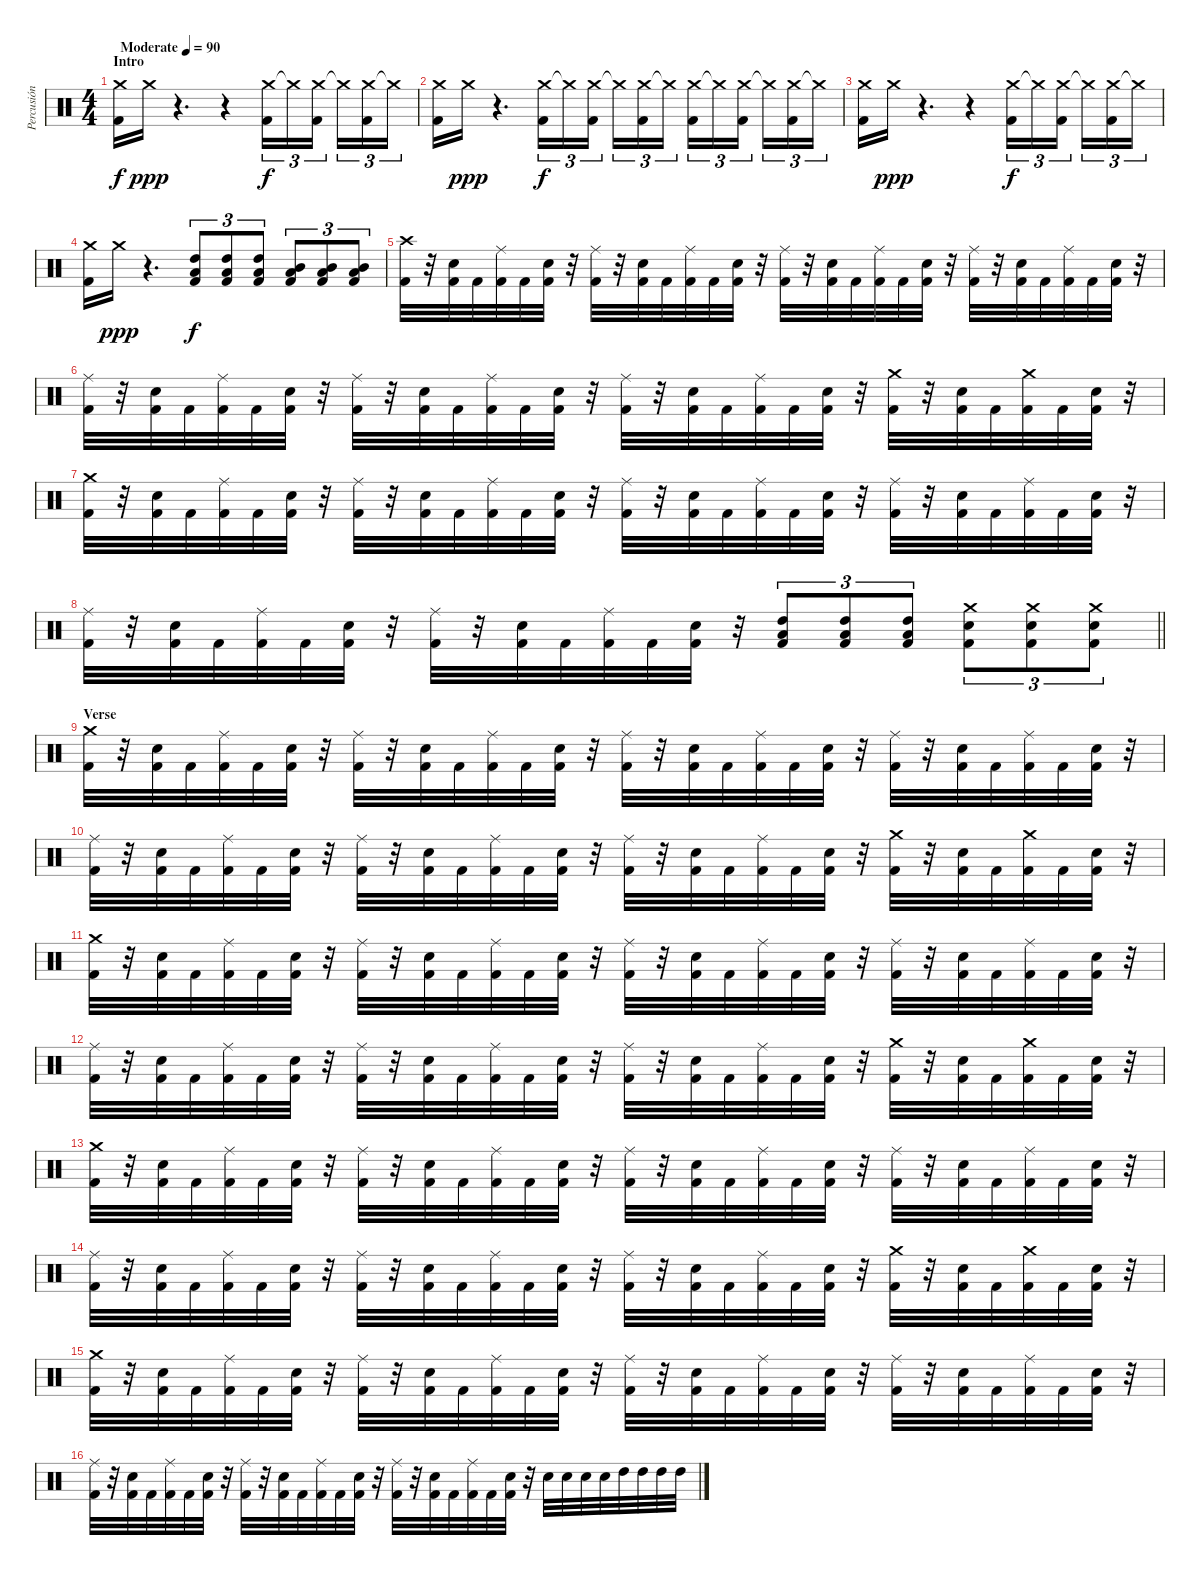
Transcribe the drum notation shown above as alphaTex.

\track ("Percusión" "Percusión") {instrument percussion}
\staff {score}
\articulation defaults
\ts (4 4)
\section ("" "Intro")
\tempo (90 "Moderate")
\clef neutral
\ks c
("Crash medium (hit)" "Kick (hit) 2").16{dy f} "Crash medium (hit)".16{dy ppp} r.4{d} r.4 ("Crash medium (hit)" "Kick (hit) 2").16{tu (3 2) dy f} "Crash medium (hit)"{t}.16{tu (3 2)} ("Crash medium (hit)" "Kick (hit) 2").16{tu (3 2) beam splitsecondary} "Crash medium (hit)"{t}.16{tu (3 2)} ("Crash medium (hit)" "Kick (hit) 2").16{tu (3 2)} "Crash medium (hit)"{t}.16{tu (3 2)} |
("Crash medium (hit)" "Kick (hit) 2").16 "Crash medium (hit)".16{dy ppp} r.4{d} ("Crash medium (hit)" "Kick (hit) 2").16{tu (3 2) dy f} "Crash medium (hit)"{t}.16{tu (3 2)} ("Crash medium (hit)" "Kick (hit) 2").16{tu (3 2) beam splitsecondary} "Crash medium (hit)"{t}.16{tu (3 2)} ("Crash medium (hit)" "Kick (hit) 2").16{tu (3 2)} "Crash medium (hit)"{t}.16{tu (3 2)} ("Crash medium (hit)" "Kick (hit) 2").16{tu (3 2)} "Crash medium (hit)"{t}.16{tu (3 2)} ("Crash medium (hit)" "Kick (hit) 2").16{tu (3 2) beam splitsecondary} "Crash medium (hit)"{t}.16{tu (3 2)} ("Crash medium (hit)" "Kick (hit) 2").16{tu (3 2)} "Crash medium (hit)"{t}.16{tu (3 2)} |
("Crash medium (hit)" "Kick (hit) 2").16 "Crash medium (hit)".16{dy ppp} r.4{d} r.4 ("Crash medium (hit)" "Kick (hit) 2").16{tu (3 2) dy f} "Crash medium (hit)"{t}.16{tu (3 2)} ("Crash medium (hit)" "Kick (hit) 2").16{tu (3 2) beam splitsecondary} "Crash medium (hit)"{t}.16{tu (3 2)} ("Crash medium (hit)" "Kick (hit) 2").16{tu (3 2)} "Crash medium (hit)"{t}.16{tu (3 2)} |
("Crash medium (hit)" "Kick (hit) 2").16 "Crash medium (hit)".16{dy ppp} r.4{d} ("High Tom (hit)" "Low Floor Tom (hit)" "Kick (hit) 2").8{tu (3 2) bd 60 dy f} ("High Tom (hit)" "Low Floor Tom (hit)" "Kick (hit) 2").8{tu (3 2) bd 60} ("High Tom (hit)" "Low Floor Tom (hit)" "Kick (hit) 2").8{tu (3 2) bd 60} ("Mid Tom (hit)" "Low Floor Tom (hit)" "Kick (hit) 2").8{tu (3 2) bd 60} ("Mid Tom (hit)" "Low Floor Tom (hit)" "Kick (hit) 2").8{tu (3 2) bd 60} ("Mid Tom (hit)" "Low Floor Tom (hit)" "Kick (hit) 2").8{tu (3 2) bd 60} |
("Crash high (hit)" "Kick (hit) 2").32 r.32 ("Snare (hit) 2" "Kick (hit) 2").32 "Kick (hit) 2".32 ("Ride (middle)" "Kick (hit) 2").32 "Kick (hit) 2".32 ("Snare (hit) 2" "Kick (hit) 2").32 r.32 ("Ride (middle)" "Kick (hit) 2").32 r.32 ("Snare (hit) 2" "Kick (hit) 2").32 "Kick (hit) 2".32 ("Ride (middle)" "Kick (hit) 2").32 "Kick (hit) 2".32 ("Snare (hit) 2" "Kick (hit) 2").32 r.32 ("Ride (middle)" "Kick (hit) 2").32 r.32 ("Snare (hit) 2" "Kick (hit) 2").32 "Kick (hit) 2".32 ("Ride (middle)" "Kick (hit) 2").32 "Kick (hit) 2".32 ("Snare (hit) 2" "Kick (hit) 2").32 r.32 ("Ride (middle)" "Kick (hit) 2").32 r.32 ("Snare (hit) 2" "Kick (hit) 2").32 "Kick (hit) 2".32 ("Ride (middle)" "Kick (hit) 2").32 "Kick (hit) 2".32 ("Snare (hit) 2" "Kick (hit) 2").32 r.32 |
("Ride (middle)" "Kick (hit) 2").32 r.32 ("Snare (hit) 2" "Kick (hit) 2").32 "Kick (hit) 2".32 ("Ride (middle)" "Kick (hit) 2").32 "Kick (hit) 2".32 ("Snare (hit) 2" "Kick (hit) 2").32 r.32 ("Ride (middle)" "Kick (hit) 2").32 r.32 ("Snare (hit) 2" "Kick (hit) 2").32 "Kick (hit) 2".32 ("Ride (middle)" "Kick (hit) 2").32 "Kick (hit) 2".32 ("Snare (hit) 2" "Kick (hit) 2").32 r.32 ("Ride (middle)" "Kick (hit) 2").32 r.32 ("Snare (hit) 2" "Kick (hit) 2").32 "Kick (hit) 2".32 ("Ride (middle)" "Kick (hit) 2").32 "Kick (hit) 2".32 ("Snare (hit) 2" "Kick (hit) 2").32 r.32 ("Crash medium (hit)" "Kick (hit) 2").32 r.32 ("Snare (hit) 2" "Kick (hit) 2").32 "Kick (hit) 2".32 ("Crash medium (hit)" "Kick (hit) 2").32 "Kick (hit) 2".32 ("Snare (hit) 2" "Kick (hit) 2").32 r.32 |
("Crash medium (hit)" "Kick (hit) 2").32 r.32 ("Snare (hit) 2" "Kick (hit) 2").32 "Kick (hit) 2".32 ("Ride (middle)" "Kick (hit) 2").32 "Kick (hit) 2".32 ("Snare (hit) 2" "Kick (hit) 2").32 r.32 ("Ride (middle)" "Kick (hit) 2").32 r.32 ("Snare (hit) 2" "Kick (hit) 2").32 "Kick (hit) 2".32 ("Ride (middle)" "Kick (hit) 2").32 "Kick (hit) 2".32 ("Snare (hit) 2" "Kick (hit) 2").32 r.32 ("Ride (middle)" "Kick (hit) 2").32 r.32 ("Snare (hit) 2" "Kick (hit) 2").32 "Kick (hit) 2".32 ("Ride (middle)" "Kick (hit) 2").32 "Kick (hit) 2".32 ("Snare (hit) 2" "Kick (hit) 2").32 r.32 ("Ride (middle)" "Kick (hit) 2").32 r.32 ("Snare (hit) 2" "Kick (hit) 2").32 "Kick (hit) 2".32 ("Ride (middle)" "Kick (hit) 2").32 "Kick (hit) 2".32 ("Snare (hit) 2" "Kick (hit) 2").32 r.32 |
\barLineRight lightlight
("Ride (middle)" "Kick (hit) 2").32 r.32 ("Snare (hit) 2" "Kick (hit) 2").32 "Kick (hit) 2".32 ("Ride (middle)" "Kick (hit) 2").32 "Kick (hit) 2".32 ("Snare (hit) 2" "Kick (hit) 2").32 r.32 ("Ride (middle)" "Kick (hit) 2").32 r.32 ("Snare (hit) 2" "Kick (hit) 2").32 "Kick (hit) 2".32 ("Ride (middle)" "Kick (hit) 2").32 "Kick (hit) 2".32 ("Snare (hit) 2" "Kick (hit) 2").32 r.32 ("High Tom (hit)" "Low Floor Tom (hit)" "Kick (hit) 2").8{tu (3 2) bd 120} ("High Tom (hit)" "Low Floor Tom (hit)" "Kick (hit) 2").8{tu (3 2) bd 120} ("High Tom (hit)" "Low Floor Tom (hit)" "Kick (hit) 2").8{tu (3 2) bd 120} ("Crash medium (hit)" "Snare (hit) 2" "Kick (hit) 2").8{tu (3 2) bd 120} ("Crash medium (hit)" "Snare (hit) 2" "Kick (hit) 2").8{tu (3 2) bd 120} ("Crash medium (hit)" "Snare (hit) 2" "Kick (hit) 2").8{tu (3 2) bd 120} |
\section ("" "Verse")
("Crash medium (hit)" "Kick (hit) 2").32 r.32 ("Snare (hit) 2" "Kick (hit) 2").32 "Kick (hit) 2".32 ("Ride (middle)" "Kick (hit) 2").32 "Kick (hit) 2".32 ("Snare (hit) 2" "Kick (hit) 2").32 r.32 ("Ride (middle)" "Kick (hit) 2").32 r.32 ("Snare (hit) 2" "Kick (hit) 2").32 "Kick (hit) 2".32 ("Ride (middle)" "Kick (hit) 2").32 "Kick (hit) 2".32 ("Snare (hit) 2" "Kick (hit) 2").32 r.32 ("Ride (middle)" "Kick (hit) 2").32 r.32 ("Snare (hit) 2" "Kick (hit) 2").32 "Kick (hit) 2".32 ("Ride (middle)" "Kick (hit) 2").32 "Kick (hit) 2".32 ("Snare (hit) 2" "Kick (hit) 2").32 r.32 ("Ride (middle)" "Kick (hit) 2").32 r.32 ("Snare (hit) 2" "Kick (hit) 2").32 "Kick (hit) 2".32 ("Ride (middle)" "Kick (hit) 2").32 "Kick (hit) 2".32 ("Snare (hit) 2" "Kick (hit) 2").32 r.32 |
("Ride (middle)" "Kick (hit) 2").32 r.32 ("Snare (hit) 2" "Kick (hit) 2").32 "Kick (hit) 2".32 ("Ride (middle)" "Kick (hit) 2").32 "Kick (hit) 2".32 ("Snare (hit) 2" "Kick (hit) 2").32 r.32 ("Ride (middle)" "Kick (hit) 2").32 r.32 ("Snare (hit) 2" "Kick (hit) 2").32 "Kick (hit) 2".32 ("Ride (middle)" "Kick (hit) 2").32 "Kick (hit) 2".32 ("Snare (hit) 2" "Kick (hit) 2").32 r.32 ("Ride (middle)" "Kick (hit) 2").32 r.32 ("Snare (hit) 2" "Kick (hit) 2").32 "Kick (hit) 2".32 ("Ride (middle)" "Kick (hit) 2").32 "Kick (hit) 2".32 ("Snare (hit) 2" "Kick (hit) 2").32 r.32 ("Crash medium (hit)" "Kick (hit) 2").32 r.32 ("Snare (hit) 2" "Kick (hit) 2").32 "Kick (hit) 2".32 ("Crash medium (hit)" "Kick (hit) 2").32 "Kick (hit) 2".32 ("Snare (hit) 2" "Kick (hit) 2").32 r.32 |
("Crash medium (hit)" "Kick (hit) 2").32 r.32 ("Snare (hit) 2" "Kick (hit) 2").32 "Kick (hit) 2".32 ("Ride (middle)" "Kick (hit) 2").32 "Kick (hit) 2".32 ("Snare (hit) 2" "Kick (hit) 2").32 r.32 ("Ride (middle)" "Kick (hit) 2").32 r.32 ("Snare (hit) 2" "Kick (hit) 2").32 "Kick (hit) 2".32 ("Ride (middle)" "Kick (hit) 2").32 "Kick (hit) 2".32 ("Snare (hit) 2" "Kick (hit) 2").32 r.32 ("Ride (middle)" "Kick (hit) 2").32 r.32 ("Snare (hit) 2" "Kick (hit) 2").32 "Kick (hit) 2".32 ("Ride (middle)" "Kick (hit) 2").32 "Kick (hit) 2".32 ("Snare (hit) 2" "Kick (hit) 2").32 r.32 ("Ride (middle)" "Kick (hit) 2").32 r.32 ("Snare (hit) 2" "Kick (hit) 2").32 "Kick (hit) 2".32 ("Ride (middle)" "Kick (hit) 2").32 "Kick (hit) 2".32 ("Snare (hit) 2" "Kick (hit) 2").32 r.32 |
("Ride (middle)" "Kick (hit) 2").32 r.32 ("Snare (hit) 2" "Kick (hit) 2").32 "Kick (hit) 2".32 ("Ride (middle)" "Kick (hit) 2").32 "Kick (hit) 2".32 ("Snare (hit) 2" "Kick (hit) 2").32 r.32 ("Ride (middle)" "Kick (hit) 2").32 r.32 ("Snare (hit) 2" "Kick (hit) 2").32 "Kick (hit) 2".32 ("Ride (middle)" "Kick (hit) 2").32 "Kick (hit) 2".32 ("Snare (hit) 2" "Kick (hit) 2").32 r.32 ("Ride (middle)" "Kick (hit) 2").32 r.32 ("Snare (hit) 2" "Kick (hit) 2").32 "Kick (hit) 2".32 ("Ride (middle)" "Kick (hit) 2").32 "Kick (hit) 2".32 ("Snare (hit) 2" "Kick (hit) 2").32 r.32 ("Crash medium (hit)" "Kick (hit) 2").32 r.32 ("Snare (hit) 2" "Kick (hit) 2").32 "Kick (hit) 2".32 ("Crash medium (hit)" "Kick (hit) 2").32 "Kick (hit) 2".32 ("Snare (hit) 2" "Kick (hit) 2").32 r.32 |
("Crash medium (hit)" "Kick (hit) 2").32 r.32 ("Snare (hit) 2" "Kick (hit) 2").32 "Kick (hit) 2".32 ("Ride (middle)" "Kick (hit) 2").32 "Kick (hit) 2".32 ("Snare (hit) 2" "Kick (hit) 2").32 r.32 ("Ride (middle)" "Kick (hit) 2").32 r.32 ("Snare (hit) 2" "Kick (hit) 2").32 "Kick (hit) 2".32 ("Ride (middle)" "Kick (hit) 2").32 "Kick (hit) 2".32 ("Snare (hit) 2" "Kick (hit) 2").32 r.32 ("Ride (middle)" "Kick (hit) 2").32 r.32 ("Snare (hit) 2" "Kick (hit) 2").32 "Kick (hit) 2".32 ("Ride (middle)" "Kick (hit) 2").32 "Kick (hit) 2".32 ("Snare (hit) 2" "Kick (hit) 2").32 r.32 ("Ride (middle)" "Kick (hit) 2").32 r.32 ("Snare (hit) 2" "Kick (hit) 2").32 "Kick (hit) 2".32 ("Ride (middle)" "Kick (hit) 2").32 "Kick (hit) 2".32 ("Snare (hit) 2" "Kick (hit) 2").32 r.32 |
("Ride (middle)" "Kick (hit) 2").32 r.32 ("Snare (hit) 2" "Kick (hit) 2").32 "Kick (hit) 2".32 ("Ride (middle)" "Kick (hit) 2").32 "Kick (hit) 2".32 ("Snare (hit) 2" "Kick (hit) 2").32 r.32 ("Ride (middle)" "Kick (hit) 2").32 r.32 ("Snare (hit) 2" "Kick (hit) 2").32 "Kick (hit) 2".32 ("Ride (middle)" "Kick (hit) 2").32 "Kick (hit) 2".32 ("Snare (hit) 2" "Kick (hit) 2").32 r.32 ("Ride (middle)" "Kick (hit) 2").32 r.32 ("Snare (hit) 2" "Kick (hit) 2").32 "Kick (hit) 2".32 ("Ride (middle)" "Kick (hit) 2").32 "Kick (hit) 2".32 ("Snare (hit) 2" "Kick (hit) 2").32 r.32 ("Crash medium (hit)" "Kick (hit) 2").32 r.32 ("Snare (hit) 2" "Kick (hit) 2").32 "Kick (hit) 2".32 ("Crash medium (hit)" "Kick (hit) 2").32 "Kick (hit) 2".32 ("Snare (hit) 2" "Kick (hit) 2").32 r.32 |
("Crash medium (hit)" "Kick (hit) 2").32 r.32 ("Snare (hit) 2" "Kick (hit) 2").32 "Kick (hit) 2".32 ("Ride (middle)" "Kick (hit) 2").32 "Kick (hit) 2".32 ("Snare (hit) 2" "Kick (hit) 2").32 r.32 ("Ride (middle)" "Kick (hit) 2").32 r.32 ("Snare (hit) 2" "Kick (hit) 2").32 "Kick (hit) 2".32 ("Ride (middle)" "Kick (hit) 2").32 "Kick (hit) 2".32 ("Snare (hit) 2" "Kick (hit) 2").32 r.32 ("Ride (middle)" "Kick (hit) 2").32 r.32 ("Snare (hit) 2" "Kick (hit) 2").32 "Kick (hit) 2".32 ("Ride (middle)" "Kick (hit) 2").32 "Kick (hit) 2".32 ("Snare (hit) 2" "Kick (hit) 2").32 r.32 ("Ride (middle)" "Kick (hit) 2").32 r.32 ("Snare (hit) 2" "Kick (hit) 2").32 "Kick (hit) 2".32 ("Ride (middle)" "Kick (hit) 2").32 "Kick (hit) 2".32 ("Snare (hit) 2" "Kick (hit) 2").32 r.32 |
("Ride (middle)" "Kick (hit) 2").32 r.32 ("Snare (hit) 2" "Kick (hit) 2").32 "Kick (hit) 2".32 ("Ride (middle)" "Kick (hit) 2").32 "Kick (hit) 2".32 ("Snare (hit) 2" "Kick (hit) 2").32 r.32 ("Ride (middle)" "Kick (hit) 2").32 r.32 ("Snare (hit) 2" "Kick (hit) 2").32 "Kick (hit) 2".32 ("Ride (middle)" "Kick (hit) 2").32 "Kick (hit) 2".32 ("Snare (hit) 2" "Kick (hit) 2").32 r.32 ("Ride (middle)" "Kick (hit) 2").32 r.32 ("Snare (hit) 2" "Kick (hit) 2").32 "Kick (hit) 2".32 ("Ride (middle)" "Kick (hit) 2").32 "Kick (hit) 2".32 ("Snare (hit) 2" "Kick (hit) 2").32 r.32 "Snare (hit) 2".32 "Snare (hit) 2".32 "Snare (hit) 2".32 "Snare (hit) 2".32 "High Tom (hit)".32 "High Tom (hit)".32 "High Tom (hit)".32 "High Tom (hit)".32
